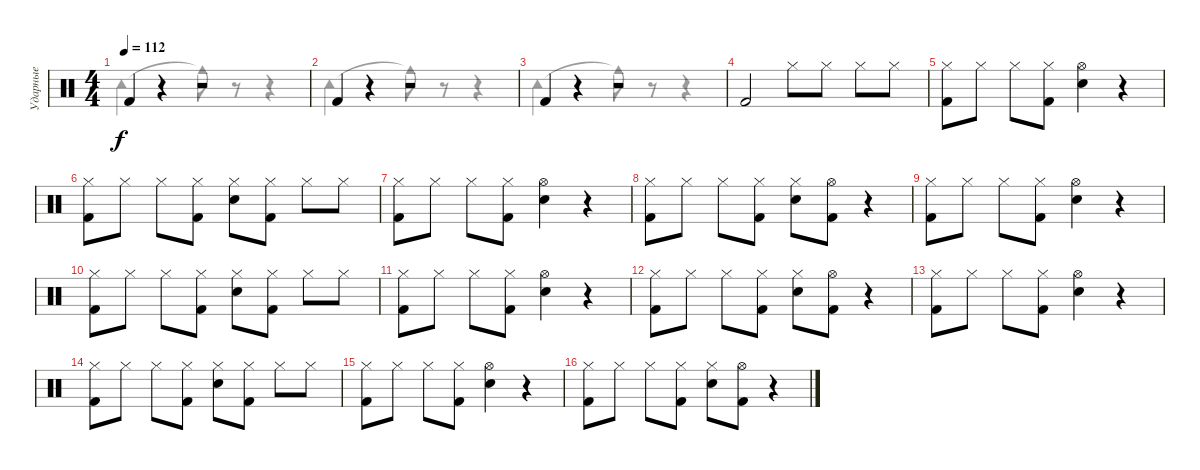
\track ("Ударные" "Ударные") {instrument percussion}
\staff {score}
\articulation defaults
\voice
\ts (4 4)
\tempo 112
\clef neutral
\ks c "Kick (hit) 2".4{dy f}
r.4 r.2 |
"Kick (hit) 2".4 r.4 r.2 |
"Kick (hit) 2".4 r.4 r.2 |
"Kick (hit) 2".2 "Hi-Hat (closed)".8 "Hi-Hat (closed)".8 "Hi-Hat (closed)".8 "Hi-Hat (closed)".8 |
("Hi-Hat (closed)" "Kick (hit) 2").8 "Hi-Hat (closed)".8 "Hi-Hat (closed)".8 ("Hi-Hat (closed)" "Kick (hit) 2").8 ("Hi-Hat (open)" "Snare (hit) 2").4 r.4 |
("Hi-Hat (closed)" "Kick (hit) 2").8 "Hi-Hat (closed)".8 "Hi-Hat (closed)".8 ("Hi-Hat (closed)" "Kick (hit) 2").8 ("Hi-Hat (closed)" "Snare (hit) 2").8 ("Hi-Hat (closed)" "Kick (hit) 2").8 "Hi-Hat (closed)".8 "Hi-Hat (closed)".8 |
("Hi-Hat (closed)" "Kick (hit) 2").8 "Hi-Hat (closed)".8 "Hi-Hat (closed)".8 ("Hi-Hat (closed)" "Kick (hit) 2").8 ("Hi-Hat (open)" "Snare (hit) 2").4 r.4 |
("Hi-Hat (closed)" "Kick (hit) 2").8 "Hi-Hat (closed)".8 "Hi-Hat (closed)".8 ("Hi-Hat (closed)" "Kick (hit) 2").8 ("Hi-Hat (closed)" "Snare (hit) 2").8 ("Hi-Hat (open)" "Kick (hit) 2").8 r.4 |
("Hi-Hat (closed)" "Kick (hit) 2").8 "Hi-Hat (closed)".8 "Hi-Hat (closed)".8 ("Hi-Hat (closed)" "Kick (hit) 2").8 ("Hi-Hat (open)" "Snare (hit) 2").4 r.4 |
("Hi-Hat (closed)" "Kick (hit) 2").8 "Hi-Hat (closed)".8 "Hi-Hat (closed)".8 ("Hi-Hat (closed)" "Kick (hit) 2").8 ("Hi-Hat (closed)" "Snare (hit) 2").8 ("Hi-Hat (closed)" "Kick (hit) 2").8 "Hi-Hat (closed)".8 "Hi-Hat (closed)".8 |
("Hi-Hat (closed)" "Kick (hit) 2").8 "Hi-Hat (closed)".8 "Hi-Hat (closed)".8 ("Hi-Hat (closed)" "Kick (hit) 2").8 ("Hi-Hat (open)" "Snare (hit) 2").4 r.4 |
("Hi-Hat (closed)" "Kick (hit) 2").8 "Hi-Hat (closed)".8 "Hi-Hat (closed)".8 ("Hi-Hat (closed)" "Kick (hit) 2").8 ("Hi-Hat (closed)" "Snare (hit) 2").8 ("Hi-Hat (open)" "Kick (hit) 2").8 r.4 |
("Hi-Hat (closed)" "Kick (hit) 2").8 "Hi-Hat (closed)".8 "Hi-Hat (closed)".8 ("Hi-Hat (closed)" "Kick (hit) 2").8 ("Hi-Hat (open)" "Snare (hit) 2").4 r.4 |
("Hi-Hat (closed)" "Kick (hit) 2").8 "Hi-Hat (closed)".8 "Hi-Hat (closed)".8 ("Hi-Hat (closed)" "Kick (hit) 2").8 ("Hi-Hat (closed)" "Snare (hit) 2").8 ("Hi-Hat (closed)" "Kick (hit) 2").8 "Hi-Hat (closed)".8 "Hi-Hat (closed)".8 |
("Hi-Hat (closed)" "Kick (hit) 2").8 "Hi-Hat (closed)".8 "Hi-Hat (closed)".8 ("Hi-Hat (closed)" "Kick (hit) 2").8 ("Hi-Hat (open)" "Snare (hit) 2").4 r.4 |
("Hi-Hat (closed)" "Kick (hit) 2").8 "Hi-Hat (closed)".8 "Hi-Hat (closed)".8 ("Hi-Hat (closed)" "Kick (hit) 2").8 ("Hi-Hat (closed)" "Snare (hit) 2").8 ("Hi-Hat (open)" "Kick (hit) 2").8 r.4
\voice
\clef neutral
\ottava regular
\simile none
\ks c "Tambourine (hit)".2{dy f} "Cowbell medium (hit)"{t}.8
r.8 r.4 |
"Tambourine (hit)".2 "Cowbell medium (hit)"{t}.8 r.8 r.4 |
"Tambourine (hit)".2 "Cowbell medium (hit)"{t}.8 r.8 r.4 |
|
|
|
|
|
|
|
|
|
|
|
|
